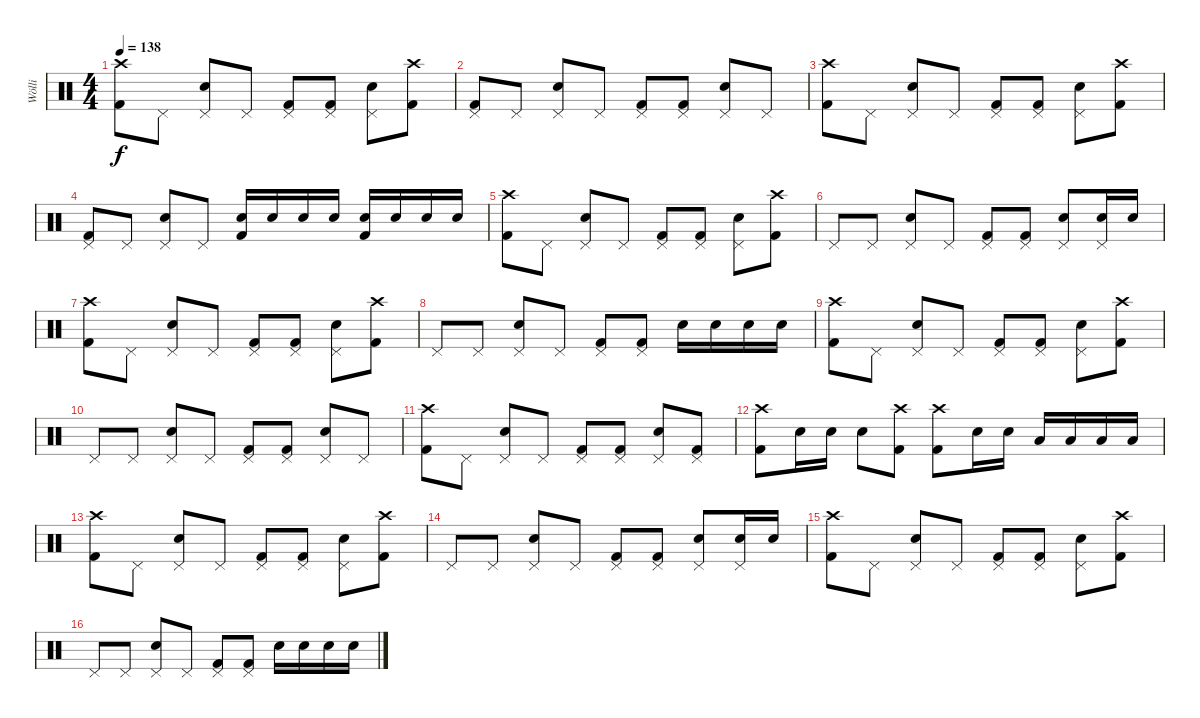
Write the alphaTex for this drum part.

\track ("Wölli" "Wölli") {instrument percussion}
\staff {score}
\articulation defaults
\ts (4 4)
\tempo 138
\clef neutral
\ks c
("Crash high (hit)" "Kick (hit) 2").8{dy f} "Pedal Hi-Hat (hit)".8 ("Pedal Hi-Hat (hit)" "Snare (hit) 2").8 "Pedal Hi-Hat (hit)".8 ("Pedal Hi-Hat (hit)" "Kick (hit) 2").8 ("Pedal Hi-Hat (hit)" "Kick (hit) 2").8 ("Pedal Hi-Hat (hit)" "Snare (hit) 2").8 ("Crash high (hit)" "Kick (hit) 2").8 |
("Pedal Hi-Hat (hit)" "Kick (hit) 2").8 "Pedal Hi-Hat (hit)".8 ("Pedal Hi-Hat (hit)" "Snare (hit) 2").8 "Pedal Hi-Hat (hit)".8 ("Pedal Hi-Hat (hit)" "Kick (hit) 2").8 ("Pedal Hi-Hat (hit)" "Kick (hit) 2").8 ("Pedal Hi-Hat (hit)" "Snare (hit) 2").8 "Pedal Hi-Hat (hit)".8 |
("Crash high (hit)" "Kick (hit) 2").8 "Pedal Hi-Hat (hit)".8 ("Pedal Hi-Hat (hit)" "Snare (hit) 2").8 "Pedal Hi-Hat (hit)".8 ("Pedal Hi-Hat (hit)" "Kick (hit) 2").8 ("Pedal Hi-Hat (hit)" "Kick (hit) 2").8 ("Pedal Hi-Hat (hit)" "Snare (hit) 2").8 ("Crash high (hit)" "Kick (hit) 2").8 |
("Pedal Hi-Hat (hit)" "Kick (hit) 2").8 "Pedal Hi-Hat (hit)".8 ("Pedal Hi-Hat (hit)" "Snare (hit) 2").8 "Pedal Hi-Hat (hit)".8 ("Snare (hit) 2" "Kick (hit) 2").16 "Snare (hit) 2".16 "Snare (hit) 2".16 "Snare (hit) 2".16 ("Snare (hit) 2" "Kick (hit) 2").16 "Snare (hit) 2".16 "Snare (hit) 2".16 "Snare (hit) 2".16 |
("Crash high (hit)" "Kick (hit) 2").8 "Pedal Hi-Hat (hit)".8 ("Pedal Hi-Hat (hit)" "Snare (hit) 2").8 "Pedal Hi-Hat (hit)".8 ("Pedal Hi-Hat (hit)" "Kick (hit) 2").8 ("Pedal Hi-Hat (hit)" "Kick (hit) 2").8 ("Pedal Hi-Hat (hit)" "Snare (hit) 2").8 ("Crash high (hit)" "Kick (hit) 2").8 |
"Pedal Hi-Hat (hit)".8 "Pedal Hi-Hat (hit)".8 ("Pedal Hi-Hat (hit)" "Snare (hit) 2").8 "Pedal Hi-Hat (hit)".8 ("Pedal Hi-Hat (hit)" "Kick (hit) 2").8 ("Pedal Hi-Hat (hit)" "Kick (hit) 2").8 ("Pedal Hi-Hat (hit)" "Snare (hit) 2").8 ("Pedal Hi-Hat (hit)" "Snare (hit) 2").16 "Snare (hit) 2".16 |
("Crash high (hit)" "Kick (hit) 2").8 "Pedal Hi-Hat (hit)".8 ("Pedal Hi-Hat (hit)" "Snare (hit) 2").8 "Pedal Hi-Hat (hit)".8 ("Pedal Hi-Hat (hit)" "Kick (hit) 2").8 ("Pedal Hi-Hat (hit)" "Kick (hit) 2").8 ("Pedal Hi-Hat (hit)" "Snare (hit) 2").8 ("Crash high (hit)" "Kick (hit) 2").8 |
"Pedal Hi-Hat (hit)".8 "Pedal Hi-Hat (hit)".8 ("Pedal Hi-Hat (hit)" "Snare (hit) 2").8 "Pedal Hi-Hat (hit)".8 ("Pedal Hi-Hat (hit)" "Kick (hit) 2").8 ("Pedal Hi-Hat (hit)" "Kick (hit) 2").8 "Snare (hit) 2".16 "Snare (hit) 2".16 "Snare (hit) 2".16 "Snare (hit) 2".16 |
("Crash high (hit)" "Kick (hit) 2").8 "Pedal Hi-Hat (hit)".8 ("Pedal Hi-Hat (hit)" "Snare (hit) 2").8 "Pedal Hi-Hat (hit)".8 ("Pedal Hi-Hat (hit)" "Kick (hit) 2").8 ("Pedal Hi-Hat (hit)" "Kick (hit) 2").8 ("Pedal Hi-Hat (hit)" "Snare (hit) 2").8 ("Crash high (hit)" "Kick (hit) 2").8 |
"Pedal Hi-Hat (hit)".8 "Pedal Hi-Hat (hit)".8 ("Pedal Hi-Hat (hit)" "Snare (hit) 2").8 "Pedal Hi-Hat (hit)".8 ("Pedal Hi-Hat (hit)" "Kick (hit) 2").8 ("Pedal Hi-Hat (hit)" "Kick (hit) 2").8 ("Pedal Hi-Hat (hit)" "Snare (hit) 2").8 "Pedal Hi-Hat (hit)".8 |
("Crash high (hit)" "Kick (hit) 2").8 "Pedal Hi-Hat (hit)".8 ("Pedal Hi-Hat (hit)" "Snare (hit) 2").8 "Pedal Hi-Hat (hit)".8 ("Pedal Hi-Hat (hit)" "Kick (hit) 2").8 ("Pedal Hi-Hat (hit)" "Kick (hit) 2").8 ("Pedal Hi-Hat (hit)" "Snare (hit) 2").8 ("Pedal Hi-Hat (hit)" "Kick (hit) 2").8 |
("Crash high (hit)" "Kick (hit) 2").8 "Snare (hit) 2".16 "Snare (hit) 2".16 "Snare (hit) 2".8 ("Crash high (hit)" "Kick (hit) 2").8 ("Crash high (hit)" "Kick (hit) 2").8 "Snare (hit) 2".16 "Snare (hit) 2".16 "Low Tom (hit)".16 "Low Tom (hit)".16 "Low Tom (hit)".16 "Low Tom (hit)".16 |
("Crash high (hit)" "Kick (hit) 2").8 "Pedal Hi-Hat (hit)".8 ("Pedal Hi-Hat (hit)" "Snare (hit) 2").8 "Pedal Hi-Hat (hit)".8 ("Pedal Hi-Hat (hit)" "Kick (hit) 2").8 ("Pedal Hi-Hat (hit)" "Kick (hit) 2").8 ("Pedal Hi-Hat (hit)" "Snare (hit) 2").8 ("Crash high (hit)" "Kick (hit) 2").8 |
"Pedal Hi-Hat (hit)".8 "Pedal Hi-Hat (hit)".8 ("Pedal Hi-Hat (hit)" "Snare (hit) 2").8 "Pedal Hi-Hat (hit)".8 ("Pedal Hi-Hat (hit)" "Kick (hit) 2").8 ("Pedal Hi-Hat (hit)" "Kick (hit) 2").8 ("Pedal Hi-Hat (hit)" "Snare (hit) 2").8 ("Pedal Hi-Hat (hit)" "Snare (hit) 2").16 "Snare (hit) 2".16 |
("Crash high (hit)" "Kick (hit) 2").8 "Pedal Hi-Hat (hit)".8 ("Pedal Hi-Hat (hit)" "Snare (hit) 2").8 "Pedal Hi-Hat (hit)".8 ("Pedal Hi-Hat (hit)" "Kick (hit) 2").8 ("Pedal Hi-Hat (hit)" "Kick (hit) 2").8 ("Pedal Hi-Hat (hit)" "Snare (hit) 2").8 ("Crash high (hit)" "Kick (hit) 2").8 |
"Pedal Hi-Hat (hit)".8 "Pedal Hi-Hat (hit)".8 ("Pedal Hi-Hat (hit)" "Snare (hit) 2").8 "Pedal Hi-Hat (hit)".8 ("Pedal Hi-Hat (hit)" "Kick (hit) 2").8 ("Pedal Hi-Hat (hit)" "Kick (hit) 2").8 "Snare (hit) 2".16 "Snare (hit) 2".16 "Snare (hit) 2".16 "Snare (hit) 2".16
